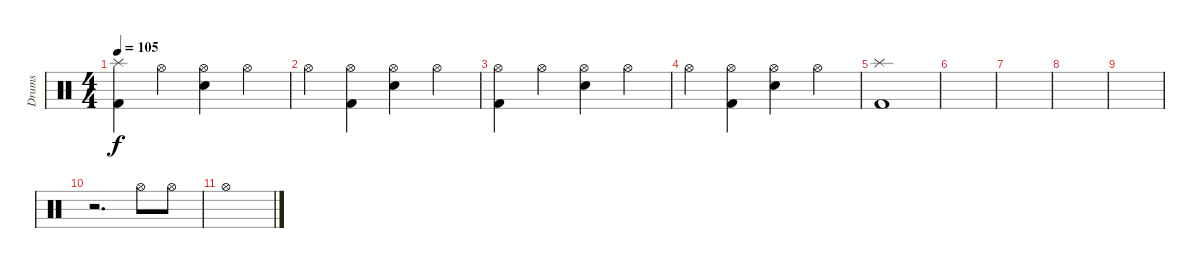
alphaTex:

\track ("Drums" "Drums") {instrument percussion}
\staff {score}
\articulation defaults
\ts (4 4)
\tempo 105
\clef neutral
\ks c
("Splash (hit)" "Kick (hit) 2").4{dy f} "Hi-Hat (open)".4 ("Hi-Hat (open)" "Electric Snare (hit)").4 "Hi-Hat (open)".4 |
"Hi-Hat (open)".4 ("Hi-Hat (open)" "Kick (hit) 2").4 ("Hi-Hat (open)" "Electric Snare (hit)").4 "Hi-Hat (open)".4 |
("Hi-Hat (open)" "Kick (hit) 2").4 "Hi-Hat (open)".4 ("Hi-Hat (open)" "Electric Snare (hit)").4 "Hi-Hat (open)".4 |
"Hi-Hat (open)".4 ("Hi-Hat (open)" "Kick (hit) 2").4 ("Hi-Hat (open)" "Electric Snare (hit)").4 "Hi-Hat (open)".4 |
("Splash (hit)" "Kick (hit) 2").1 |
|
|
|
|
r.2{d} "Hi-Hat (open)".8 "Hi-Hat (open)".8 |
"Hi-Hat (open)".1
